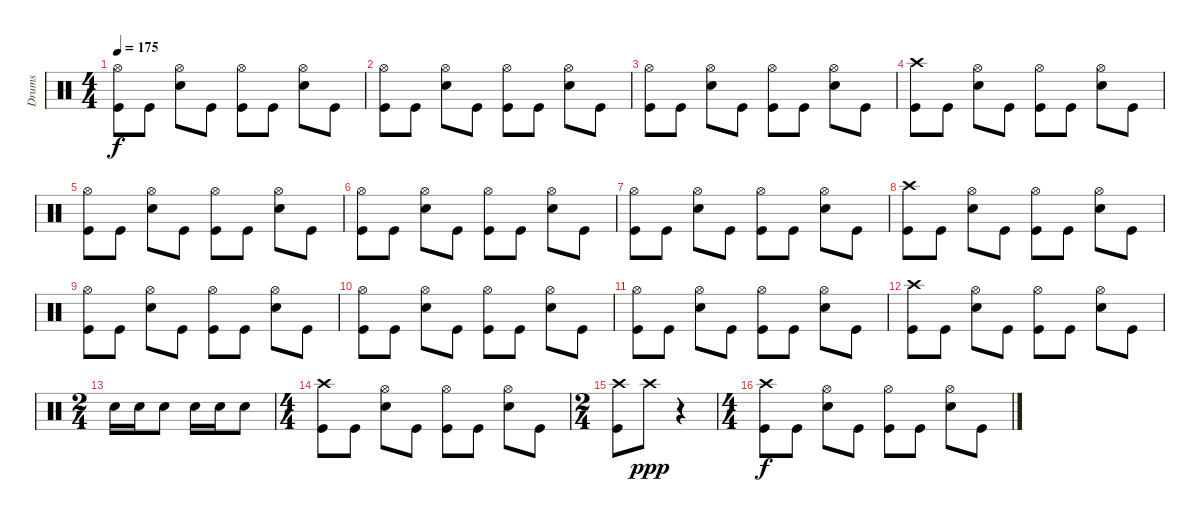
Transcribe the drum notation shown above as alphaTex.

\track ("Drums" "Drums") {instrument percussion}
\staff {score}
\articulation defaults
\ts (4 4)
\tempo 175
\clef neutral
\ks c
("Hi-Hat (open)" "Kick (hit)").8{dy f} "Kick (hit)".8 ("Hi-Hat (open)" "Electric Snare (hit)").8 "Kick (hit)".8 ("Hi-Hat (open)" "Kick (hit)").8 "Kick (hit)".8 ("Hi-Hat (open)" "Electric Snare (hit)").8 "Kick (hit)".8 |
("Hi-Hat (open)" "Kick (hit)").8 "Kick (hit)".8 ("Hi-Hat (open)" "Electric Snare (hit)").8 "Kick (hit)".8 ("Hi-Hat (open)" "Kick (hit)").8 "Kick (hit)".8 ("Hi-Hat (open)" "Electric Snare (hit)").8 "Kick (hit)".8 |
("Hi-Hat (open)" "Kick (hit)").8 "Kick (hit)".8 ("Hi-Hat (open)" "Electric Snare (hit)").8 "Kick (hit)".8 ("Hi-Hat (open)" "Kick (hit)").8 "Kick (hit)".8 ("Hi-Hat (open)" "Electric Snare (hit)").8 "Kick (hit)".8 |
("Crash high (hit)" "Kick (hit)").8 "Kick (hit)".8 ("Hi-Hat (open)" "Electric Snare (hit)").8 "Kick (hit)".8 ("Hi-Hat (open)" "Kick (hit)").8 "Kick (hit)".8 ("Hi-Hat (open)" "Electric Snare (hit)").8 "Kick (hit)".8 |
("Hi-Hat (open)" "Kick (hit)").8 "Kick (hit)".8 ("Hi-Hat (open)" "Electric Snare (hit)").8 "Kick (hit)".8 ("Hi-Hat (open)" "Kick (hit)").8 "Kick (hit)".8 ("Hi-Hat (open)" "Electric Snare (hit)").8 "Kick (hit)".8 |
("Hi-Hat (open)" "Kick (hit)").8 "Kick (hit)".8 ("Hi-Hat (open)" "Electric Snare (hit)").8 "Kick (hit)".8 ("Hi-Hat (open)" "Kick (hit)").8 "Kick (hit)".8 ("Hi-Hat (open)" "Electric Snare (hit)").8 "Kick (hit)".8 |
("Hi-Hat (open)" "Kick (hit)").8 "Kick (hit)".8 ("Hi-Hat (open)" "Electric Snare (hit)").8 "Kick (hit)".8 ("Hi-Hat (open)" "Kick (hit)").8 "Kick (hit)".8 ("Hi-Hat (open)" "Electric Snare (hit)").8 "Kick (hit)".8 |
("Crash high (hit)" "Kick (hit)").8 "Kick (hit)".8 ("Hi-Hat (open)" "Electric Snare (hit)").8 "Kick (hit)".8 ("Hi-Hat (open)" "Kick (hit)").8 "Kick (hit)".8 ("Hi-Hat (open)" "Electric Snare (hit)").8 "Kick (hit)".8 |
("Hi-Hat (open)" "Kick (hit)").8 "Kick (hit)".8 ("Hi-Hat (open)" "Electric Snare (hit)").8 "Kick (hit)".8 ("Hi-Hat (open)" "Kick (hit)").8 "Kick (hit)".8 ("Hi-Hat (open)" "Electric Snare (hit)").8 "Kick (hit)".8 |
("Hi-Hat (open)" "Kick (hit)").8 "Kick (hit)".8 ("Hi-Hat (open)" "Electric Snare (hit)").8 "Kick (hit)".8 ("Hi-Hat (open)" "Kick (hit)").8 "Kick (hit)".8 ("Hi-Hat (open)" "Electric Snare (hit)").8 "Kick (hit)".8 |
("Hi-Hat (open)" "Kick (hit)").8 "Kick (hit)".8 ("Hi-Hat (open)" "Electric Snare (hit)").8 "Kick (hit)".8 ("Hi-Hat (open)" "Kick (hit)").8 "Kick (hit)".8 ("Hi-Hat (open)" "Electric Snare (hit)").8 "Kick (hit)".8 |
("Crash high (hit)" "Kick (hit)").8 "Kick (hit)".8 ("Hi-Hat (open)" "Electric Snare (hit)").8 "Kick (hit)".8 ("Hi-Hat (open)" "Kick (hit)").8 "Kick (hit)".8 ("Hi-Hat (open)" "Electric Snare (hit)").8 "Kick (hit)".8 |
\ts (2 4)
"Electric Snare (hit)".16 "Electric Snare (hit)".16 "Electric Snare (hit)".8 "Electric Snare (hit)".16 "Electric Snare (hit)".16 "Electric Snare (hit)".8 |
\ts (4 4)
("Crash high (hit)" "Kick (hit)").8 "Kick (hit)".8 ("Hi-Hat (open)" "Electric Snare (hit)").8 "Kick (hit)".8 ("Hi-Hat (open)" "Kick (hit)").8 "Kick (hit)".8 ("Hi-Hat (open)" "Electric Snare (hit)").8 "Kick (hit)".8 |
\ts (2 4)
("Crash high (hit)" "Kick (hit)").8 "Crash high (hit)".8{dy ppp} r.4 |
\ts (4 4)
("Crash high (hit)" "Kick (hit)").8{dy f} "Kick (hit)".8 ("Hi-Hat (open)" "Electric Snare (hit)").8 "Kick (hit)".8 ("Hi-Hat (open)" "Kick (hit)").8 "Kick (hit)".8 ("Hi-Hat (open)" "Electric Snare (hit)").8 "Kick (hit)".8
